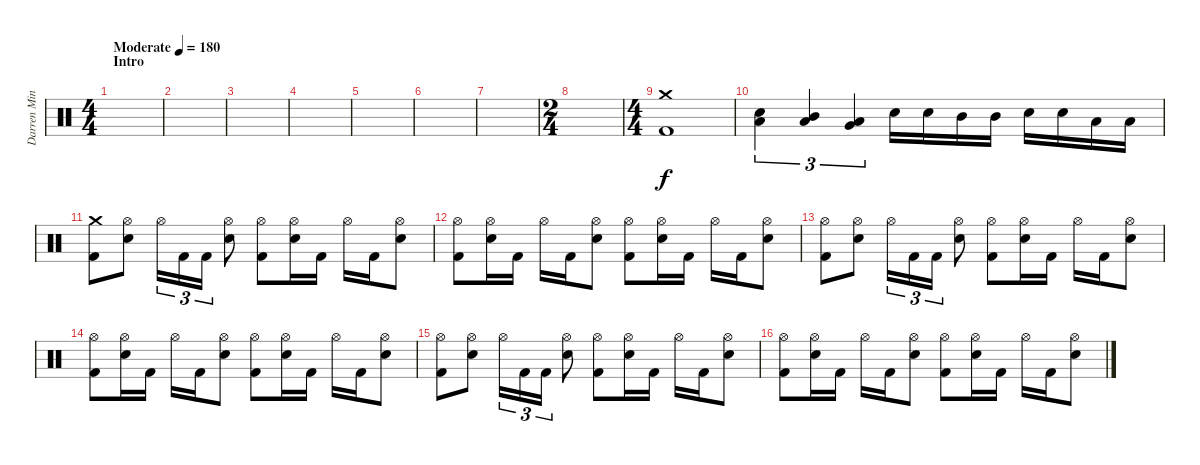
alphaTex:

\track ("Darren Minter" "Darren Min") {instrument percussion}
\staff {score}
\articulation defaults
\ts (4 4)
\section ("" "Intro")
\tempo (180 "Moderate")
\clef neutral
\ks c
|
|
|
|
|
|
|
\ts (2 4)
|
\ts (4 4)
("Crash medium (hit)" "Kick (hit) 2").1 |
("Electric Snare (hit)" "Low Floor Tom (hit)").4{tu (3 2)} ("Mid Tom (hit)" "Low Tom (hit)").4{tu (3 2)} ("Low Tom (hit)" "Very Low Tom (hit)").4{tu (3 2)} "Electric Snare (hit)".16 "Electric Snare (hit)".16 "Mid Tom (hit)".16 "Mid Tom (hit)".16 "Electric Snare (hit)".16 "Electric Snare (hit)".16 "Low Tom (hit)".16 "Low Tom (hit)".16 |
("Crash medium (hit)" "Kick (hit) 2").8 ("Hi-Hat (open)" "Electric Snare (hit)").8 "Hi-Hat (open)".16{tu (3 2)} "Kick (hit) 2".16{tu (3 2)} "Kick (hit) 2".16{tu (3 2)} ("Hi-Hat (open)" "Electric Snare (hit)").8 ("Hi-Hat (open)" "Kick (hit) 2").8 ("Hi-Hat (open)" "Electric Snare (hit)").16 "Kick (hit) 2".16 "Hi-Hat (open)".16 "Kick (hit) 2".16 ("Hi-Hat (open)" "Electric Snare (hit)").8 |
("Hi-Hat (open)" "Kick (hit) 2").8 ("Hi-Hat (open)" "Electric Snare (hit)").16 "Kick (hit) 2".16 "Hi-Hat (open)".16 "Kick (hit) 2".16 ("Hi-Hat (open)" "Electric Snare (hit)").8 ("Hi-Hat (open)" "Kick (hit) 2").8 ("Hi-Hat (open)" "Electric Snare (hit)").16 "Kick (hit) 2".16 "Hi-Hat (open)".16 "Kick (hit) 2".16 ("Hi-Hat (open)" "Electric Snare (hit)").8 |
("Hi-Hat (open)" "Kick (hit) 2").8 ("Hi-Hat (open)" "Electric Snare (hit)").8 "Hi-Hat (open)".16{tu (3 2)} "Kick (hit) 2".16{tu (3 2)} "Kick (hit) 2".16{tu (3 2)} ("Hi-Hat (open)" "Electric Snare (hit)").8 ("Hi-Hat (open)" "Kick (hit) 2").8 ("Hi-Hat (open)" "Electric Snare (hit)").16 "Kick (hit) 2".16 "Hi-Hat (open)".16 "Kick (hit) 2".16 ("Hi-Hat (open)" "Electric Snare (hit)").8 |
("Hi-Hat (open)" "Kick (hit) 2").8 ("Hi-Hat (open)" "Electric Snare (hit)").16 "Kick (hit) 2".16 "Hi-Hat (open)".16 "Kick (hit) 2".16 ("Hi-Hat (open)" "Electric Snare (hit)").8 ("Hi-Hat (open)" "Kick (hit) 2").8 ("Hi-Hat (open)" "Electric Snare (hit)").16 "Kick (hit) 2".16 "Hi-Hat (open)".16 "Kick (hit) 2".16 ("Hi-Hat (open)" "Electric Snare (hit)").8 |
("Hi-Hat (open)" "Kick (hit) 2").8 ("Hi-Hat (open)" "Electric Snare (hit)").8 "Hi-Hat (open)".16{tu (3 2)} "Kick (hit) 2".16{tu (3 2)} "Kick (hit) 2".16{tu (3 2)} ("Hi-Hat (open)" "Electric Snare (hit)").8 ("Hi-Hat (open)" "Kick (hit) 2").8 ("Hi-Hat (open)" "Electric Snare (hit)").16 "Kick (hit) 2".16 "Hi-Hat (open)".16 "Kick (hit) 2".16 ("Hi-Hat (open)" "Electric Snare (hit)").8 |
("Hi-Hat (open)" "Kick (hit) 2").8 ("Hi-Hat (open)" "Electric Snare (hit)").16 "Kick (hit) 2".16 "Hi-Hat (open)".16 "Kick (hit) 2".16 ("Hi-Hat (open)" "Electric Snare (hit)").8 ("Hi-Hat (open)" "Kick (hit) 2").8 ("Hi-Hat (open)" "Electric Snare (hit)").16 "Kick (hit) 2".16 "Hi-Hat (open)".16 "Kick (hit) 2".16 ("Hi-Hat (open)" "Electric Snare (hit)").8
